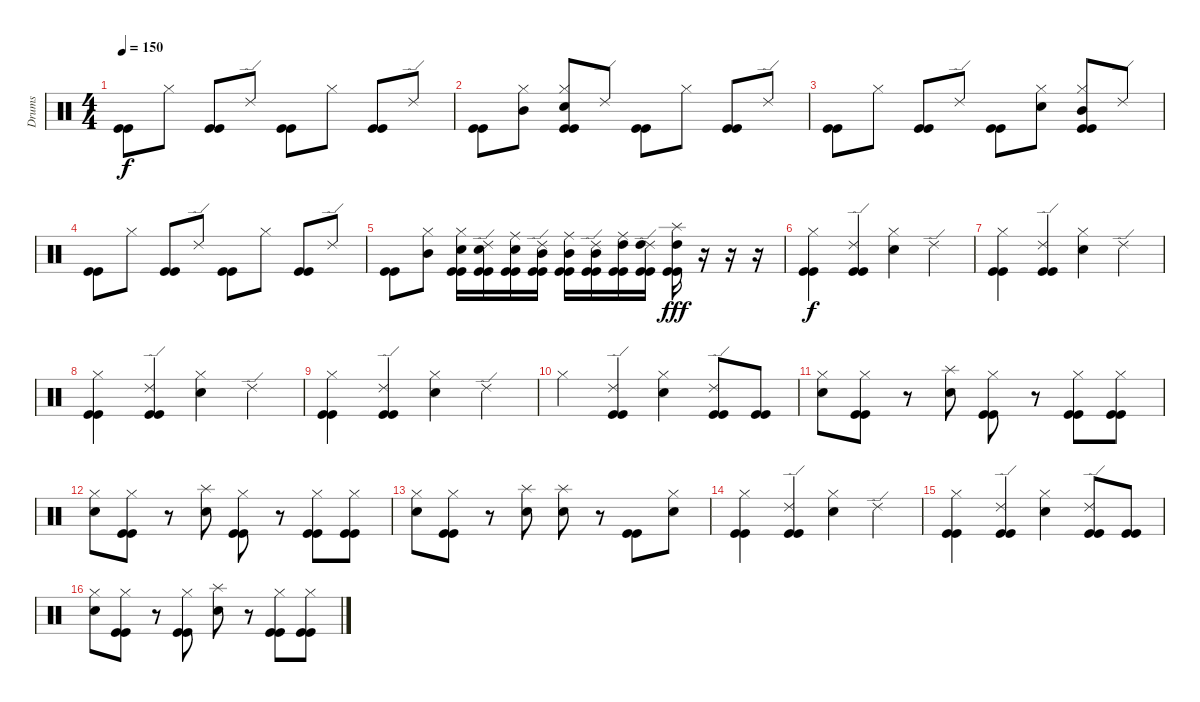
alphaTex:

\track ("Drums" "Drums") {instrument percussion}
\staff {score}
\articulation defaults
\ts (4 4)
\tempo 150
\clef neutral
\ks c
("Kick (hit)" "Kick (hit)").8{dy f} "Hi-Hat (closed)".8 ("Kick (hit)" "Kick (hit)").8 "Ride (edge) 2".8 ("Kick (hit)" "Kick (hit)").8 "Hi-Hat (closed)".8 ("Kick (hit)" "Kick (hit)").8 "Ride (edge) 2".8 |
("Kick (hit)" "Kick (hit)").8 ("Hi-Hat (closed)" "Mid Tom (hit)").8 ("Hi-Hat (closed)" "Snare (hit) 2" "Kick (hit)" "Kick (hit)").8 "Ride (edge) 2".8 ("Kick (hit)" "Kick (hit)").8 "Hi-Hat (closed)".8 ("Kick (hit)" "Kick (hit)").8 "Ride (edge) 2".8 |
("Kick (hit)" "Kick (hit)").8 "Hi-Hat (closed)".8 ("Kick (hit)" "Kick (hit)").8 "Ride (edge) 2".8 ("Kick (hit)" "Kick (hit)").8 ("Hi-Hat (closed)" "Snare (hit) 2").8 ("Hi-Hat (closed)" "Mid Tom (hit)" "Kick (hit)" "Kick (hit)").8 "Ride (edge) 2".8 |
("Kick (hit)" "Kick (hit)").8 "Hi-Hat (closed)".8 ("Kick (hit)" "Kick (hit)").8 "Ride (edge) 2".8 ("Kick (hit)" "Kick (hit)").8 "Hi-Hat (closed)".8 ("Kick (hit)" "Kick (hit)").8 "Ride (edge) 2".8 |
("Kick (hit)" "Kick (hit)").8 ("Hi-Hat (closed)" "Mid Tom (hit)").8 ("Hi-Hat (closed)" "Snare (hit) 2" "Kick (hit)" "Kick (hit)").16 ("Ride (edge) 2" "Snare (hit) 2" "Kick (hit)" "Kick (hit)").16 ("Ride (middle)" "Snare (hit) 2" "Kick (hit)" "Kick (hit)").16 ("Ride (edge) 2" "Mid Tom (hit)" "Kick (hit)" "Kick (hit)").16 ("Ride (middle)" "Mid Tom (hit)" "Kick (hit)" "Kick (hit)").16 ("Ride (edge) 2" "Mid Tom (hit)" "Kick (hit)" "Kick (hit)").16 ("Ride (middle)" "High Tom (hit)" "Kick (hit)" "Kick (hit)").16 ("Ride (edge) 2" "High Tom (hit)" "Kick (hit)" "Kick (hit)").16 ("Splash (hit)" "High Tom (hit)" "Kick (hit)" "Kick (hit)").16{dy fff} r.16 r.16 r.16 |
("Hi-Hat (closed)" "Kick (hit)" "Kick (hit)").4{dy f} ("Ride (edge) 2" "Kick (hit)" "Kick (hit)").4 ("Hi-Hat (closed)" "Snare (hit) 2").4 "Ride (edge) 2".4 |
("Hi-Hat (closed)" "Kick (hit)" "Kick (hit)").4 ("Ride (edge) 2" "Kick (hit)" "Kick (hit)").4 ("Hi-Hat (closed)" "Snare (hit) 2").4 "Ride (edge) 2".4 |
("Hi-Hat (closed)" "Kick (hit)" "Kick (hit)").4 ("Ride (edge) 2" "Kick (hit)" "Kick (hit)").4 ("Hi-Hat (closed)" "Snare (hit) 2").4 "Ride (edge) 2".4 |
("Hi-Hat (closed)" "Kick (hit)" "Kick (hit)").4 ("Ride (edge) 2" "Kick (hit)" "Kick (hit)").4 ("Hi-Hat (closed)" "Snare (hit) 2").4 "Ride (edge) 2".4 |
"Hi-Hat (closed)".4 ("Ride (edge) 2" "Kick (hit)" "Kick (hit)").4 ("Hi-Hat (closed)" "Snare (hit) 2").4 ("Ride (edge) 2" "Kick (hit)" "Kick (hit)").8 ("Kick (hit)" "Kick (hit)").8 |
("Hi-Hat (closed)" "Snare (hit) 2").8 ("Hi-Hat (closed)" "Kick (hit)" "Kick (hit)").8 r.8 ("Splash (hit)" "Snare (hit) 2").8 ("Hi-Hat (closed)" "Kick (hit)" "Kick (hit)").8 r.8 ("Hi-Hat (closed)" "Kick (hit)" "Kick (hit)").8 ("Hi-Hat (closed)" "Kick (hit)" "Kick (hit)").8 |
("Hi-Hat (closed)" "Snare (hit) 2").8 ("Hi-Hat (closed)" "Kick (hit)" "Kick (hit)").8 r.8 ("Splash (hit)" "Snare (hit) 2").8 ("Hi-Hat (closed)" "Kick (hit)" "Kick (hit)").8 r.8 ("Hi-Hat (closed)" "Kick (hit)" "Kick (hit)").8 ("Hi-Hat (closed)" "Kick (hit)" "Kick (hit)").8 |
("Hi-Hat (closed)" "Snare (hit) 2").8 ("Hi-Hat (closed)" "Kick (hit)" "Kick (hit)").8 r.8 ("Splash (hit)" "Snare (hit) 2").8 ("Splash (hit)" "Snare (hit) 2").8 r.8 ("Kick (hit)" "Kick (hit)").8 ("Hi-Hat (closed)" "Snare (hit) 2").8 |
("Hi-Hat (closed)" "Kick (hit)" "Kick (hit)").4 ("Ride (edge) 2" "Kick (hit)" "Kick (hit)").4 ("Hi-Hat (closed)" "Snare (hit) 2").4 "Ride (edge) 2".4 |
("Hi-Hat (closed)" "Kick (hit)" "Kick (hit)").4 ("Ride (edge) 2" "Kick (hit)" "Kick (hit)").4 ("Hi-Hat (closed)" "Snare (hit) 2").4 ("Ride (edge) 2" "Kick (hit)" "Kick (hit)").8 ("Kick (hit)" "Kick (hit)").8 |
("Hi-Hat (closed)" "Snare (hit) 2").8 ("Hi-Hat (closed)" "Kick (hit)" "Kick (hit)").8 r.8 ("Hi-Hat (closed)" "Kick (hit)" "Kick (hit)").8 ("Splash (hit)" "Snare (hit) 2").8 r.8 ("Hi-Hat (closed)" "Kick (hit)" "Kick (hit)").8 ("Hi-Hat (closed)" "Kick (hit)" "Kick (hit)").8
